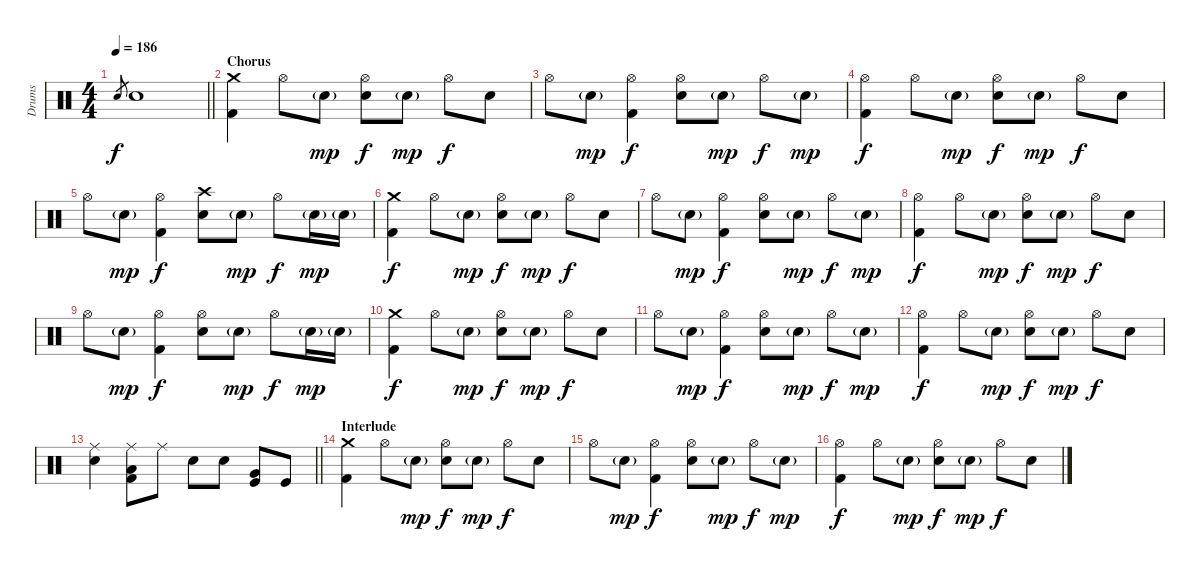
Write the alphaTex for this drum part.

\track ("Drums" "Drums") {instrument percussion}
\staff {score}
\articulation defaults
\ts (4 4)
\tempo 186
\clef neutral
\barLineRight lightlight
\ks c "Electric Snare (hit)".8{gr dy f} "Electric Snare (hit)".1
|
\section ("" "Chorus")
("Crash medium (hit)" "Kick (hit) 2").4 "Hi-Hat (open)".8 "Electric Snare (hit)"{g}.8{dy mp} ("Hi-Hat (open)" "Electric Snare (hit)").8{dy f} "Electric Snare (hit)"{g}.8{dy mp} "Hi-Hat (open)".8{dy f} "Electric Snare (hit)".8 |
"Hi-Hat (open)".8 "Electric Snare (hit)"{g}.8{dy mp} ("Hi-Hat (open)" "Kick (hit) 2").4{dy f} ("Hi-Hat (open)" "Electric Snare (hit)").8 "Electric Snare (hit)"{g}.8{dy mp} "Hi-Hat (open)".8{dy f} "Electric Snare (hit)"{g}.8{dy mp} |
("Hi-Hat (open)" "Kick (hit) 2").4{dy f} "Hi-Hat (open)".8 "Electric Snare (hit)"{g}.8{dy mp} ("Hi-Hat (open)" "Electric Snare (hit)").8{dy f} "Electric Snare (hit)"{g}.8{dy mp} "Hi-Hat (open)".8{dy f} "Electric Snare (hit)".8 |
"Hi-Hat (open)".8 "Electric Snare (hit)"{g}.8{dy mp} ("Hi-Hat (open)" "Kick (hit) 2").4{dy f} ("Crash high (hit)" "Electric Snare (hit)").8 "Electric Snare (hit)"{g}.8{dy mp} "Hi-Hat (open)".8{dy f} "Electric Snare (hit)"{g}.16{dy mp} "Electric Snare (hit)"{g}.16 |
("Crash medium (hit)" "Kick (hit) 2").4{dy f} "Hi-Hat (open)".8 "Electric Snare (hit)"{g}.8{dy mp} ("Hi-Hat (open)" "Electric Snare (hit)").8{dy f} "Electric Snare (hit)"{g}.8{dy mp} "Hi-Hat (open)".8{dy f} "Electric Snare (hit)".8 |
"Hi-Hat (open)".8 "Electric Snare (hit)"{g}.8{dy mp} ("Hi-Hat (open)" "Kick (hit) 2").4{dy f} ("Hi-Hat (open)" "Electric Snare (hit)").8 "Electric Snare (hit)"{g}.8{dy mp} "Hi-Hat (open)".8{dy f} "Electric Snare (hit)"{g}.8{dy mp} |
("Hi-Hat (open)" "Kick (hit) 2").4{dy f} "Hi-Hat (open)".8 "Electric Snare (hit)"{g}.8{dy mp} ("Hi-Hat (open)" "Electric Snare (hit)").8{dy f} "Electric Snare (hit)"{g}.8{dy mp} "Hi-Hat (open)".8{dy f} "Electric Snare (hit)".8 |
"Hi-Hat (open)".8 "Electric Snare (hit)"{g}.8{dy mp} ("Hi-Hat (open)" "Kick (hit) 2").4{dy f} ("Hi-Hat (open)" "Electric Snare (hit)").8 "Electric Snare (hit)"{g}.8{dy mp} "Hi-Hat (open)".8{dy f} "Electric Snare (hit)"{g}.16{dy mp} "Electric Snare (hit)"{g}.16 |
("Crash medium (hit)" "Kick (hit) 2").4{dy f} "Hi-Hat (open)".8 "Electric Snare (hit)"{g}.8{dy mp} ("Hi-Hat (open)" "Electric Snare (hit)").8{dy f} "Electric Snare (hit)"{g}.8{dy mp} "Hi-Hat (open)".8{dy f} "Electric Snare (hit)".8 |
"Hi-Hat (open)".8 "Electric Snare (hit)"{g}.8{dy mp} ("Hi-Hat (open)" "Kick (hit) 2").4{dy f} ("Hi-Hat (open)" "Electric Snare (hit)").8 "Electric Snare (hit)"{g}.8{dy mp} "Hi-Hat (open)".8{dy f} "Electric Snare (hit)"{g}.8{dy mp} |
("Hi-Hat (open)" "Kick (hit) 2").4{dy f} "Hi-Hat (open)".8 "Electric Snare (hit)"{g}.8{dy mp} ("Hi-Hat (open)" "Electric Snare (hit)").8{dy f} "Electric Snare (hit)"{g}.8{dy mp} "Hi-Hat (open)".8{dy f} "Electric Snare (hit)".8 |
\barLineRight lightlight
("Ride (middle)" "Electric Snare (hit)").4 ("Ride (middle)" "Low Tom (hit)" "Kick (hit) 2").8 "Ride (middle)".8 "Electric Snare (hit)".8 "Electric Snare (hit)".8 ("Very Low Tom (hit)" "Kick (hit)").8 "Kick (hit)".8 |
\section ("" "Interlude")
("Crash medium (hit)" "Kick (hit) 2").4 "Hi-Hat (open)".8 "Electric Snare (hit)"{g}.8{dy mp} ("Hi-Hat (open)" "Electric Snare (hit)").8{dy f} "Electric Snare (hit)"{g}.8{dy mp} "Hi-Hat (open)".8{dy f} "Electric Snare (hit)".8 |
"Hi-Hat (open)".8 "Electric Snare (hit)"{g}.8{dy mp} ("Hi-Hat (open)" "Kick (hit) 2").4{dy f} ("Hi-Hat (open)" "Electric Snare (hit)").8 "Electric Snare (hit)"{g}.8{dy mp} "Hi-Hat (open)".8{dy f} "Electric Snare (hit)"{g}.8{dy mp} |
("Hi-Hat (open)" "Kick (hit) 2").4{dy f} "Hi-Hat (open)".8 "Electric Snare (hit)"{g}.8{dy mp} ("Hi-Hat (open)" "Electric Snare (hit)").8{dy f} "Electric Snare (hit)"{g}.8{dy mp} "Hi-Hat (open)".8{dy f} "Electric Snare (hit)".8
